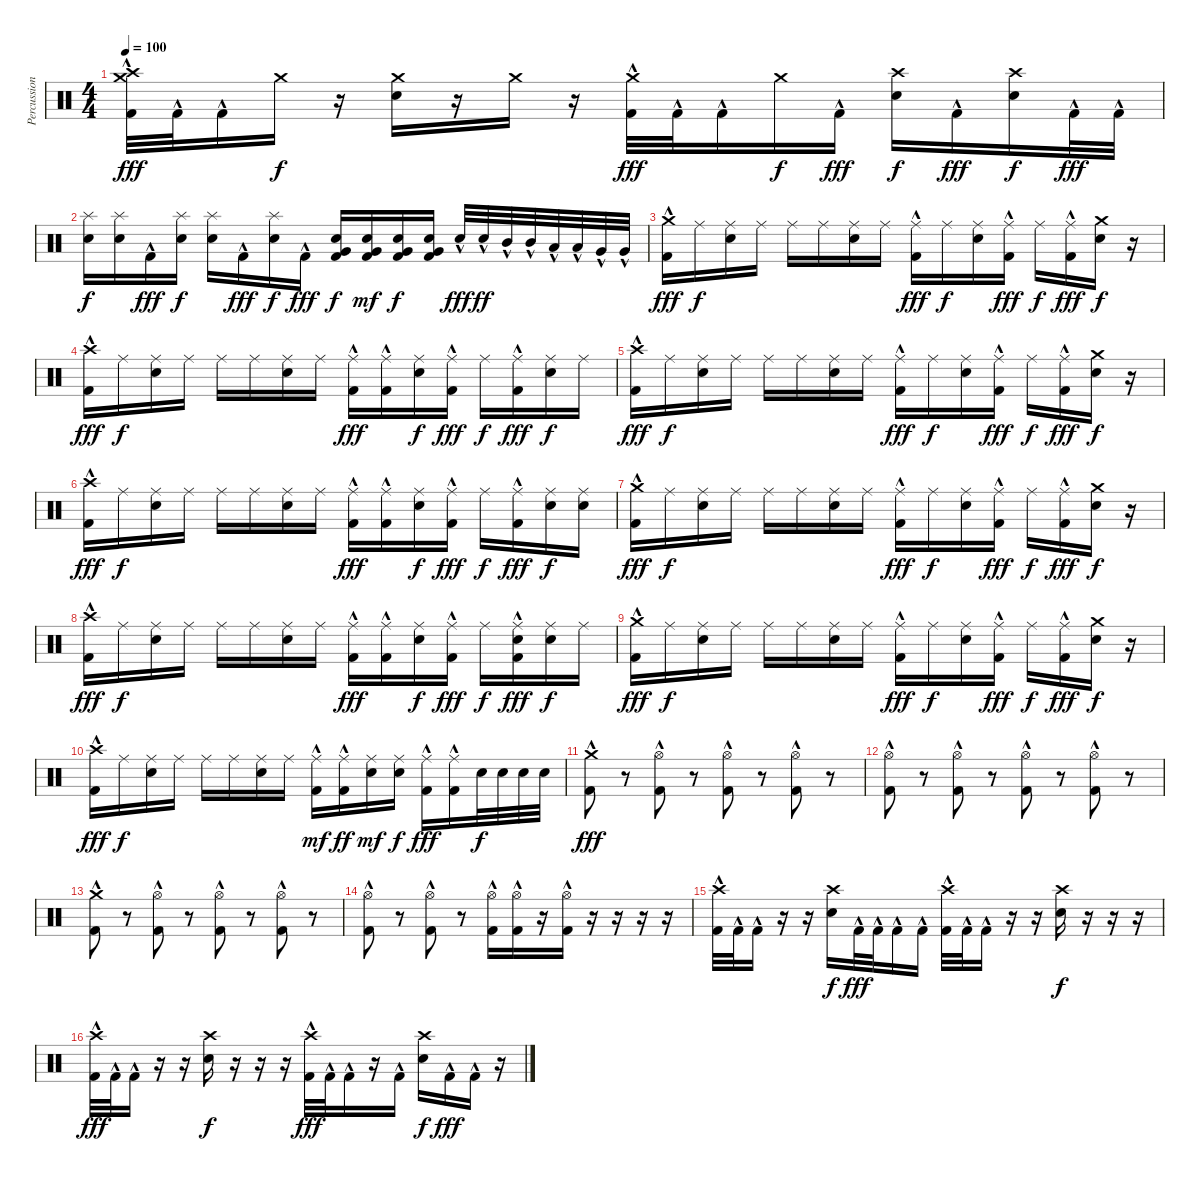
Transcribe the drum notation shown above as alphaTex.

\track ("Percussion" "Percussion") {instrument percussion}
\staff {score}
\articulation defaults
\ts (4 4)
\tempo 100
\clef neutral
\ks c
("Kick (hit) 2"{hac} "Crash medium (hit)" "Crash high (hit)").32{dy fff} "Kick (hit) 2"{hac}.32 "Kick (hit) 2"{hac}.16 "Crash medium (hit)".16{dy f} r.16 ("Electric Snare (hit)" "Crash medium (hit)").16 r.16 "Crash medium (hit)".16 r.16 ("Kick (hit) 2"{hac} "Crash medium (hit)").32{dy fff} "Kick (hit) 2"{hac}.32 "Kick (hit) 2"{hac}.16 "Crash medium (hit)".16{dy f} "Kick (hit) 2"{hac}.16{dy fff} ("Electric Snare (hit)" "Crash high (hit)").16{dy f} "Kick (hit) 2"{hac}.16{dy fff} ("Electric Snare (hit)" "Crash high (hit)").16{dy f} "Kick (hit) 2"{hac}.32{dy fff} "Kick (hit) 2"{hac}.32 |
("Electric Snare (hit)" "Splash (hit)").16{dy f} ("Electric Snare (hit)" "Splash (hit)").16 "Kick (hit) 2"{hac}.16{dy fff} ("Electric Snare (hit)" "Splash (hit)").16{dy f} ("Electric Snare (hit)" "Splash (hit)").16 "Kick (hit) 2"{hac}.16{dy fff} ("Electric Snare (hit)" "Splash (hit)").16{dy f} "Kick (hit) 2"{hac}.16{dy fff} ("Kick (hit) 2" "Electric Snare (hit)" "Very Low Tom (hit)").16{dy f} ("Kick (hit) 2" "Electric Snare (hit)" "Very Low Tom (hit)").16{dy mf} ("Kick (hit) 2" "Electric Snare (hit)" "Very Low Tom (hit)").16{dy f} ("Kick (hit) 2" "Electric Snare (hit)" "Very Low Tom (hit)").16 "Electric Snare (hit)"{hac}.32{dy fff} "Electric Snare (hit)"{hac}.32{dy ff} "Mid Tom (hit)"{hac}.32 "Mid Tom (hit)"{hac}.32 "Low Tom (hit)"{hac}.32 "Low Tom (hit)"{hac}.32 "Very Low Tom (hit)"{hac}.32 "Very Low Tom (hit)"{hac}.32 |
("Kick (hit) 2"{hac} "Crash medium (hit)").16{dy fff} "Ride (middle)".16{dy f} ("Electric Snare (hit)" "Ride (middle)").16 "Ride (middle)".16 "Ride (middle)".16 "Ride (middle)".16 ("Electric Snare (hit)" "Ride (middle)").16 "Ride (middle)".16 ("Kick (hit) 2"{hac} "Ride (middle)").16{dy fff} "Ride (middle)".16{dy f} ("Electric Snare (hit)" "Ride (middle)").16 ("Kick (hit) 2"{hac} "Ride (middle)").16{dy fff} "Ride (middle)".16{dy f} ("Kick (hit) 2"{hac} "Ride (middle)").16{dy fff} ("Electric Snare (hit)" "Crash medium (hit)").16{dy f} r.16 |
("Kick (hit) 2"{hac} "Crash high (hit)").16{dy fff} "Ride (middle)".16{dy f} ("Electric Snare (hit)" "Ride (middle)").16 "Ride (middle)".16 "Ride (middle)".16 "Ride (middle)".16 ("Electric Snare (hit)" "Ride (middle)").16 "Ride (middle)".16 ("Kick (hit) 2"{hac} "Ride (middle)").16{dy fff} ("Kick (hit) 2"{hac} "Ride (middle)").16 ("Electric Snare (hit)" "Ride (middle)").16{dy f} ("Kick (hit) 2"{hac} "Ride (middle)").16{dy fff} "Ride (middle)".16{dy f} ("Kick (hit) 2"{hac} "Ride (middle)").16{dy fff} ("Electric Snare (hit)" "Ride (middle)").16{dy f} "Ride (middle)".16 |
("Kick (hit) 2"{hac} "Crash high (hit)").16{dy fff} "Ride (middle)".16{dy f} ("Electric Snare (hit)" "Ride (middle)").16 "Ride (middle)".16 "Ride (middle)".16 "Ride (middle)".16 ("Electric Snare (hit)" "Ride (middle)").16 "Ride (middle)".16 ("Kick (hit) 2"{hac} "Ride (middle)").16{dy fff} "Ride (middle)".16{dy f} ("Electric Snare (hit)" "Ride (middle)").16 ("Kick (hit) 2"{hac} "Ride (middle)").16{dy fff} "Ride (middle)".16{dy f} ("Kick (hit) 2"{hac} "Ride (middle)").16{dy fff} ("Electric Snare (hit)" "Crash medium (hit)").16{dy f} r.16 |
("Kick (hit) 2"{hac} "Crash high (hit)").16{dy fff} "Ride (middle)".16{dy f} ("Electric Snare (hit)" "Ride (middle)").16 "Ride (middle)".16 "Ride (middle)".16 "Ride (middle)".16 ("Electric Snare (hit)" "Ride (middle)").16 "Ride (middle)".16 ("Kick (hit) 2"{hac} "Ride (middle)").16{dy fff} ("Kick (hit) 2"{hac} "Ride (middle)").16 ("Electric Snare (hit)" "Ride (middle)").16{dy f} ("Kick (hit) 2"{hac} "Ride (middle)").16{dy fff} "Ride (middle)".16{dy f} ("Kick (hit) 2"{hac} "Ride (middle)").16{dy fff} ("Electric Snare (hit)" "Ride (middle)").16{dy f} ("Electric Snare (hit)" "Ride (middle)").16 |
("Kick (hit) 2"{hac} "Crash medium (hit)").16{dy fff} "Ride (middle)".16{dy f} ("Electric Snare (hit)" "Ride (middle)").16 "Ride (middle)".16 "Ride (middle)".16 "Ride (middle)".16 ("Electric Snare (hit)" "Ride (middle)").16 "Ride (middle)".16 ("Kick (hit) 2"{hac} "Ride (middle)").16{dy fff} "Ride (middle)".16{dy f} ("Electric Snare (hit)" "Ride (middle)").16 ("Kick (hit) 2"{hac} "Ride (middle)").16{dy fff} "Ride (middle)".16{dy f} ("Kick (hit) 2"{hac} "Ride (middle)").16{dy fff} ("Electric Snare (hit)" "Crash medium (hit)").16{dy f} r.16 |
("Kick (hit) 2"{hac} "Crash high (hit)").16{dy fff} "Ride (middle)".16{dy f} ("Electric Snare (hit)" "Ride (middle)").16 "Ride (middle)".16 "Ride (middle)".16 "Ride (middle)".16 ("Electric Snare (hit)" "Ride (middle)").16 "Ride (middle)".16 ("Kick (hit) 2"{hac} "Ride (middle)").16{dy fff} ("Kick (hit) 2"{hac} "Ride (middle)").16 ("Electric Snare (hit)" "Ride (middle)").16{dy f} ("Kick (hit) 2"{hac} "Ride (middle)").16{dy fff} "Ride (middle)".16{dy f} ("Electric Snare (hit)" "Kick (hit) 2"{hac} "Ride (middle)").16{dy fff} ("Electric Snare (hit)" "Ride (middle)").16{dy f} "Ride (middle)".16 |
("Kick (hit) 2"{hac} "Crash medium (hit)").16{dy fff} "Ride (middle)".16{dy f} ("Electric Snare (hit)" "Ride (middle)").16 "Ride (middle)".16 "Ride (middle)".16 "Ride (middle)".16 ("Electric Snare (hit)" "Ride (middle)").16 "Ride (middle)".16 ("Kick (hit) 2"{hac} "Ride (middle)").16{dy fff} "Ride (middle)".16{dy f} ("Electric Snare (hit)" "Ride (middle)").16 ("Kick (hit) 2"{hac} "Ride (middle)").16{dy fff} "Ride (middle)".16{dy f} ("Kick (hit) 2"{hac} "Ride (middle)").16{dy fff} ("Electric Snare (hit)" "Crash medium (hit)").16{dy f} r.16 |
("Kick (hit) 2"{hac} "Crash high (hit)").16{dy fff} "Ride (middle)".16{dy f} ("Electric Snare (hit)" "Ride (middle)").16 "Ride (middle)".16 "Ride (middle)".16 "Ride (middle)".16 ("Electric Snare (hit)" "Ride (middle)").16 "Ride (middle)".16 ("Kick (hit) 2"{hac} "Ride (middle)").16{dy mf} ("Kick (hit) 2"{hac} "Ride (middle)").16{dy ff} ("Electric Snare (hit)" "Ride (middle)").16{dy mf} ("Electric Snare (hit)" "Ride (middle)").16{dy f} ("Kick (hit) 2"{hac} "Ride (middle)").16{dy fff} ("Kick (hit) 2"{hac} "Ride (middle)").16 "Electric Snare (hit)".32{dy f} "Electric Snare (hit)".32 "Electric Snare (hit)".32 "Electric Snare (hit)".32 |
("Kick (hit) 2"{hac} "Crash medium (hit)").8{dy fff} r.8 ("Kick (hit) 2"{hac} "Hi-Hat (open)").8 r.8 ("Kick (hit) 2"{hac} "Hi-Hat (open)").8 r.8 ("Kick (hit) 2"{hac} "Hi-Hat (open)").8 r.8 |
("Kick (hit) 2"{hac} "Hi-Hat (open)").8 r.8 ("Kick (hit) 2"{hac} "Hi-Hat (open)").8 r.8 ("Kick (hit) 2"{hac} "Hi-Hat (open)").8 r.8 ("Kick (hit) 2"{hac} "Hi-Hat (open)").8 r.8 |
("Kick (hit) 2"{hac} "Crash medium (hit)").8 r.8 ("Kick (hit) 2"{hac} "Hi-Hat (open)").8 r.8 ("Kick (hit) 2"{hac} "Hi-Hat (open)").8 r.8 ("Kick (hit) 2"{hac} "Hi-Hat (open)").8 r.8 |
("Kick (hit) 2"{hac} "Hi-Hat (open)").8 r.8 ("Kick (hit) 2"{hac} "Hi-Hat (open)").8 r.8 ("Kick (hit) 2"{hac} "Hi-Hat (open)").16 ("Kick (hit) 2"{hac} "Hi-Hat (open)").16 r.16{volume 0} ("Kick (hit) 2"{hac} "Hi-Hat (open)").16{volume 8} r.16{volume 0} r.16 r.16 r.16 |
("Kick (hit) 2"{hac} "Crash high (hit)").32{volume 8} "Kick (hit) 2"{hac}.32 "Kick (hit) 2"{hac}.16 r.16 r.16 ("Electric Snare (hit)" "Crash high (hit)").16{dy f} "Kick (hit) 2"{hac}.32{dy fff} "Kick (hit) 2"{hac}.32 "Kick (hit) 2"{hac}.16 "Kick (hit) 2"{hac}.16 ("Kick (hit) 2"{hac} "Crash high (hit)").32 "Kick (hit) 2"{hac}.32 "Kick (hit) 2"{hac}.16 r.16 r.16 ("Electric Snare (hit)" "Crash high (hit)").16{dy f} r.16 r.16 r.16 |
("Kick (hit) 2"{hac} "Crash high (hit)").32{dy fff} "Kick (hit) 2"{hac}.32 "Kick (hit) 2"{hac}.16 r.16 r.16 ("Electric Snare (hit)" "Crash high (hit)").16{dy f} r.16 r.16 r.16 ("Kick (hit) 2"{hac} "Crash high (hit)").32{dy fff} "Kick (hit) 2"{hac}.32 "Kick (hit) 2"{hac}.16 r.16 "Kick (hit) 2"{hac}.16 ("Electric Snare (hit)" "Crash high (hit)").16{dy f} "Kick (hit) 2"{hac}.16{dy fff} "Kick (hit) 2"{hac}.16 r.16
